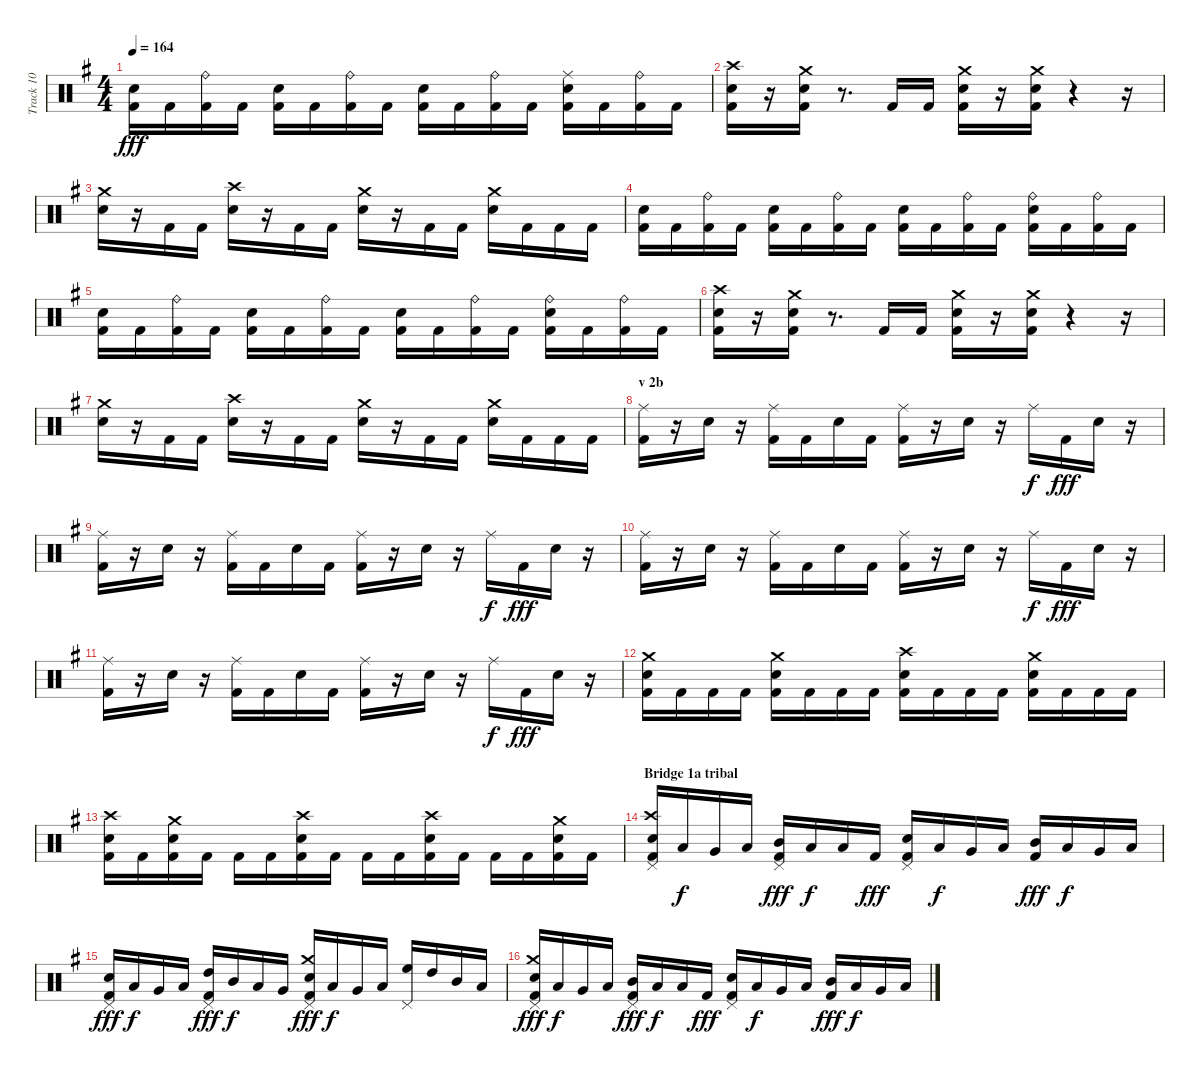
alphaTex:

\track ("Track 10" "Track 10") {instrument percussion}
\staff {score}
\articulation defaults
\ts (4 4)
\tempo 164
\clef neutral
\ks eminor
("Electric Snare (hit)" "Kick (hit) 2").16{dy fff} "Kick (hit) 2".16 ("Kick (hit) 2" "Ride (bell)").16 "Kick (hit) 2".16 ("Kick (hit) 2" "Electric Snare (hit)").16 "Kick (hit) 2".16 ("Kick (hit) 2" "Ride (bell)").16 "Kick (hit) 2".16 ("Electric Snare (hit)" "Kick (hit) 2").16 "Kick (hit) 2".16 ("Kick (hit) 2" "Ride (bell)").16 "Kick (hit) 2".16 ("Kick (hit) 2" "Electric Snare (hit)" "Ride (middle)").16 "Kick (hit) 2".16 ("Kick (hit) 2" "Ride (bell)").16 "Kick (hit) 2".16 |
("Kick (hit) 2" "Electric Snare (hit)" "Crash high (hit)").16 r.16 ("Kick (hit) 2" "Electric Snare (hit)" "Crash medium (hit)").16 r.8{d} "Kick (hit) 2".16 "Kick (hit) 2".16 ("Electric Snare (hit)" "Kick (hit) 2" "Crash medium (hit)").16 r.16 ("Electric Snare (hit)" "Kick (hit) 2" "Crash medium (hit)").16 r.4 r.16 |
("Electric Snare (hit)" "Crash medium (hit)").16 r.16 "Kick (hit) 2".16 "Kick (hit) 2".16 ("Electric Snare (hit)" "Crash high (hit)").16 r.16 "Kick (hit) 2".16 "Kick (hit) 2".16 ("Electric Snare (hit)" "Crash medium (hit)").16 r.16 "Kick (hit) 2".16 "Kick (hit) 2".16 ("Electric Snare (hit)" "Crash medium (hit)").16 "Kick (hit) 2".16 "Kick (hit) 2".16 "Kick (hit) 2".16 |
("Kick (hit) 2" "Electric Snare (hit)").16 "Kick (hit) 2".16 ("Kick (hit) 2" "Ride (bell)").16 "Kick (hit) 2".16 ("Electric Snare (hit)" "Kick (hit) 2").16 "Kick (hit) 2".16 ("Kick (hit) 2" "Ride (bell)").16 "Kick (hit) 2".16 ("Kick (hit) 2" "Electric Snare (hit)").16 "Kick (hit) 2".16 ("Kick (hit) 2" "Ride (bell)").16 "Kick (hit) 2".16 ("Electric Snare (hit)" "Kick (hit) 2" "Ride (bell)").16 "Kick (hit) 2".16 ("Kick (hit) 2" "Ride (bell)").16 "Kick (hit) 2".16 |
("Electric Snare (hit)" "Kick (hit) 2").16 "Kick (hit) 2".16 ("Kick (hit) 2" "Ride (bell)").16 "Kick (hit) 2".16 ("Electric Snare (hit)" "Kick (hit) 2").16 "Kick (hit) 2".16 ("Kick (hit) 2" "Ride (bell)").16 "Kick (hit) 2".16 ("Electric Snare (hit)" "Kick (hit) 2").16 "Kick (hit) 2".16 ("Kick (hit) 2" "Ride (bell)").16 "Kick (hit) 2".16 ("Electric Snare (hit)" "Kick (hit) 2" "Ride (bell)").16 "Kick (hit) 2".16 ("Kick (hit) 2" "Ride (bell)").16 "Kick (hit) 2".16 |
("Kick (hit) 2" "Electric Snare (hit)" "Crash high (hit)").16 r.16 ("Electric Snare (hit)" "Kick (hit) 2" "Crash medium (hit)").16 r.8{d} "Kick (hit) 2".16 "Kick (hit) 2".16 ("Kick (hit) 2" "Electric Snare (hit)" "Crash medium (hit)").16 r.16 ("Kick (hit) 2" "Electric Snare (hit)" "Crash medium (hit)").16 r.4 r.16 |
("Electric Snare (hit)" "Crash medium (hit)").16 r.16 "Kick (hit) 2".16 "Kick (hit) 2".16 ("Electric Snare (hit)" "Crash high (hit)").16 r.16 "Kick (hit) 2".16 "Kick (hit) 2".16 ("Electric Snare (hit)" "Crash medium (hit)").16 r.16 "Kick (hit) 2".16 "Kick (hit) 2".16 ("Electric Snare (hit)" "Crash medium (hit)").16 "Kick (hit) 2".16 "Kick (hit) 2".16 "Kick (hit) 2".16 |
\section ("" "v 2b")
("Kick (hit) 2" "Ride (middle)").16 r.16 "Electric Snare (hit)".16 r.16 ("Kick (hit) 2" "Ride (middle)").16 "Kick (hit) 2".16 "Electric Snare (hit)".16 "Kick (hit) 2".16 ("Kick (hit) 2" "Ride (middle)").16 r.16 "Electric Snare (hit)".16 r.16 "Ride (middle)".16{dy f} "Kick (hit) 2".16{dy fff} "Electric Snare (hit)".16 r.16 |
("Kick (hit) 2" "Ride (middle)").16 r.16 "Electric Snare (hit)".16 r.16 ("Kick (hit) 2" "Ride (middle)").16 "Kick (hit) 2".16 "Electric Snare (hit)".16 "Kick (hit) 2".16 ("Kick (hit) 2" "Ride (middle)").16 r.16 "Electric Snare (hit)".16 r.16 "Ride (middle)".16{dy f} "Kick (hit) 2".16{dy fff} "Electric Snare (hit)".16 r.16 |
("Kick (hit) 2" "Ride (middle)").16 r.16 "Electric Snare (hit)".16 r.16 ("Kick (hit) 2" "Ride (middle)").16 "Kick (hit) 2".16 "Electric Snare (hit)".16 "Kick (hit) 2".16 ("Kick (hit) 2" "Ride (middle)").16 r.16 "Electric Snare (hit)".16 r.16 "Ride (middle)".16{dy f} "Kick (hit) 2".16{dy fff} "Electric Snare (hit)".16 r.16 |
("Kick (hit) 2" "Ride (middle)").16 r.16 "Electric Snare (hit)".16 r.16 ("Kick (hit) 2" "Ride (middle)").16 "Kick (hit) 2".16 "Electric Snare (hit)".16 "Kick (hit) 2".16 ("Kick (hit) 2" "Ride (middle)").16 r.16 "Electric Snare (hit)".16 r.16 "Ride (middle)".16{dy f} "Kick (hit) 2".16{dy fff} "Electric Snare (hit)".16 r.16 |
("Kick (hit) 2" "Electric Snare (hit)" "Crash medium (hit)").16 "Kick (hit) 2".16 "Kick (hit) 2".16 "Kick (hit) 2".16 ("Kick (hit) 2" "Electric Snare (hit)" "Crash medium (hit)").16 "Kick (hit) 2".16 "Kick (hit) 2".16 "Kick (hit) 2".16 ("Electric Snare (hit)" "Kick (hit) 2" "Crash high (hit)").16 "Kick (hit) 2".16 "Kick (hit) 2".16 "Kick (hit) 2".16 ("Electric Snare (hit)" "Kick (hit) 2" "Crash medium (hit)").16 "Kick (hit) 2".16 "Kick (hit) 2".16 "Kick (hit) 2".16 |
("Kick (hit) 2" "Electric Snare (hit)" "Crash high (hit)").16 "Kick (hit) 2".16 ("Electric Snare (hit)" "Kick (hit) 2" "Crash medium (hit)").16 "Kick (hit) 2".16 "Kick (hit) 2".16 "Kick (hit) 2".16 ("Electric Snare (hit)" "Kick (hit) 2" "Crash high (hit)").16 "Kick (hit) 2".16 "Kick (hit) 2".16 "Kick (hit) 2".16 ("Electric Snare (hit)" "Kick (hit) 2" "Crash high (hit)").16 "Kick (hit) 2".16 "Kick (hit) 2".16 "Kick (hit) 2".16 ("Electric Snare (hit)" "Kick (hit) 2" "Crash medium (hit)").16 "Kick (hit) 2".16 |
\section ("" "Bridge 1a tribal")
("Electric Snare (hit)" "Kick (hit) 2" "Pedal Hi-Hat (hit)" "Crash high (hit)").16 "Low Floor Tom (hit)".16{dy f} "Very Low Tom (hit)".16 "Low Floor Tom (hit)".16 ("Kick (hit) 2" "Pedal Hi-Hat (hit)" "Mid Tom (hit)").16{dy fff} "Low Tom (hit)".16{dy f} "Low Floor Tom (hit)".16 "Kick (hit) 2".16{dy fff} ("Kick (hit) 2" "Electric Snare (hit)" "Pedal Hi-Hat (hit)").16 "Low Floor Tom (hit)".16{dy f} "Very Low Tom (hit)".16 "Low Floor Tom (hit)".16 ("Kick (hit) 2" "Mid Tom (hit)").16{dy fff} "Low Tom (hit)".16{dy f} "Very Low Tom (hit)".16 "Low Tom (hit)".16 |
("Kick (hit) 2" "Electric Snare (hit)" "Pedal Hi-Hat (hit)").16{dy fff} "Low Floor Tom (hit)".16{dy f} "Very Low Tom (hit)".16 "Low Floor Tom (hit)".16 ("Kick (hit) 2" "Pedal Hi-Hat (hit)" "High Tom (hit)").16{dy fff} "Mid Tom (hit)".16{dy f} "Low Tom (hit)".16 "Very Low Tom (hit)".16 ("Electric Snare (hit)" "Kick (hit) 2" "Crash medium (hit)" "Pedal Hi-Hat (hit)").16{dy fff} "Low Floor Tom (hit)".16{dy f} "Very Low Tom (hit)".16 "Low Floor Tom (hit)".16 ("Pedal Hi-Hat (hit)" "High Floor Tom (hit)").16 "High Tom (hit)".16 "Mid Tom (hit)".16 "Low Tom (hit)".16 |
("Kick (hit) 2" "Electric Snare (hit)" "Pedal Hi-Hat (hit)" "Crash medium (hit)").16{dy fff} "Low Floor Tom (hit)".16{dy f} "Very Low Tom (hit)".16 "Low Floor Tom (hit)".16 ("Kick (hit) 2" "Pedal Hi-Hat (hit)" "Mid Tom (hit)").16{dy fff} "Low Tom (hit)".16{dy f} "Low Floor Tom (hit)".16 "Kick (hit) 2".16{dy fff} ("Electric Snare (hit)" "Kick (hit) 2" "Pedal Hi-Hat (hit)").16 "Low Floor Tom (hit)".16{dy f} "Very Low Tom (hit)".16 "Low Floor Tom (hit)".16 ("Kick (hit) 2" "Mid Tom (hit)").16{dy fff} "Low Tom (hit)".16{dy f} "Very Low Tom (hit)".16 "Low Tom (hit)".16
